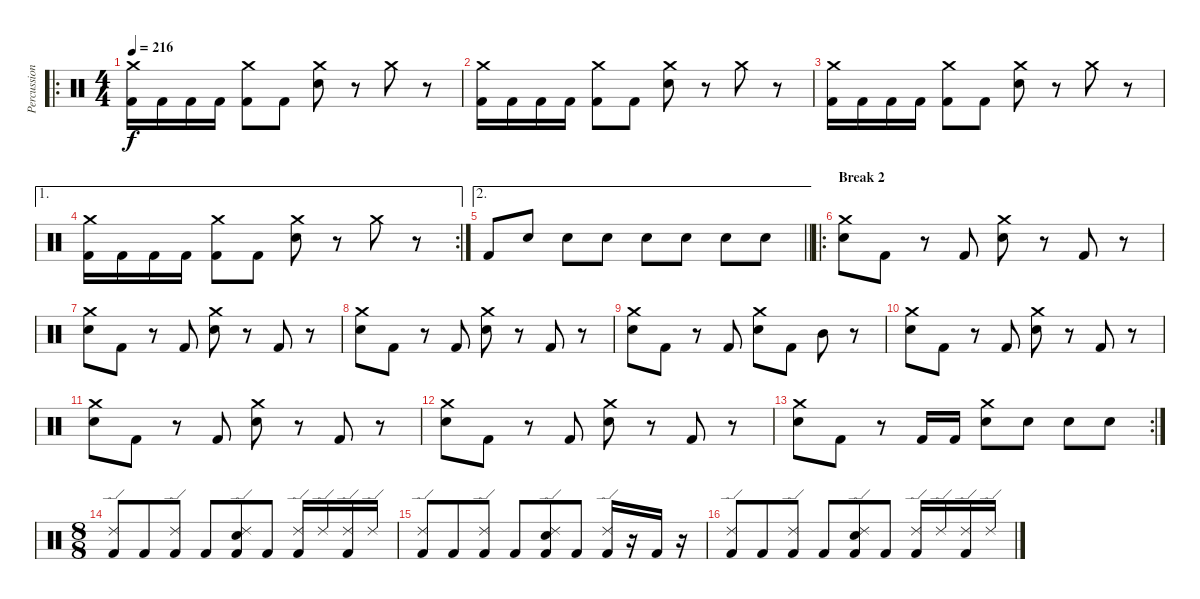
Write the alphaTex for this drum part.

\track ("Percussions" "Percussion") {instrument percussion}
\staff {score}
\articulation defaults
\ro
\ts (4 4)
\tempo 216
\clef neutral
\ks c
("Crash medium (hit)" "Kick (hit) 2").16{dy f} "Kick (hit) 2".16 "Kick (hit) 2".16 "Kick (hit) 2".16 ("Crash medium (hit)" "Kick (hit) 2").8 "Kick (hit) 2".8 ("Crash medium (hit)" "Electric Snare (hit)").8 r.8 "Crash medium (hit)".8 r.8 |
("Crash medium (hit)" "Kick (hit) 2").16 "Kick (hit) 2".16 "Kick (hit) 2".16 "Kick (hit) 2".16 ("Crash medium (hit)" "Kick (hit) 2").8 "Kick (hit) 2".8 ("Crash medium (hit)" "Electric Snare (hit)").8 r.8 "Crash medium (hit)".8 r.8 |
("Crash medium (hit)" "Kick (hit) 2").16 "Kick (hit) 2".16 "Kick (hit) 2".16 "Kick (hit) 2".16 ("Crash medium (hit)" "Kick (hit) 2").8 "Kick (hit) 2".8 ("Crash medium (hit)" "Electric Snare (hit)").8 r.8 "Crash medium (hit)".8 r.8 |
\ae 1
\rc 2
("Crash medium (hit)" "Kick (hit) 2").16 "Kick (hit) 2".16 "Kick (hit) 2".16 "Kick (hit) 2".16 ("Crash medium (hit)" "Kick (hit) 2").8 "Kick (hit) 2".8 ("Crash medium (hit)" "Electric Snare (hit)").8 r.8 "Crash medium (hit)".8 r.8 |
\ae 2
\barLineRight lightlight "Kick (hit) 2".8 "Electric Snare (hit)".8 "Electric Snare (hit)".8 "Electric Snare (hit)".8 "Electric Snare (hit)".8 "Electric Snare (hit)".8 "Electric Snare (hit)".8 "Electric Snare (hit)".8
|
\ro
\section ("" "Break 2")
("Crash medium (hit)" "Electric Snare (hit)").8 "Kick (hit) 2".8 r.8 "Kick (hit) 2".8 ("Crash medium (hit)" "Electric Snare (hit)").8 r.8 "Kick (hit) 2".8 r.8 |
("Crash medium (hit)" "Electric Snare (hit)").8 "Kick (hit) 2".8 r.8 "Kick (hit) 2".8 ("Crash medium (hit)" "Electric Snare (hit)").8 r.8 "Kick (hit) 2".8 r.8 |
("Crash medium (hit)" "Electric Snare (hit)").8 "Kick (hit) 2".8 r.8 "Kick (hit) 2".8 ("Crash medium (hit)" "Electric Snare (hit)").8 r.8 "Kick (hit) 2".8 r.8 |
("Crash medium (hit)" "Electric Snare (hit)").8 "Kick (hit) 2".8 r.8 "Kick (hit) 2".8 ("Crash medium (hit)" "Electric Snare (hit)").8 "Kick (hit) 2".8 "Mid Tom (hit)".8 r.8 |
("Crash medium (hit)" "Electric Snare (hit)").8 "Kick (hit) 2".8 r.8 "Kick (hit) 2".8 ("Crash medium (hit)" "Electric Snare (hit)").8 r.8 "Kick (hit) 2".8 r.8 |
("Crash medium (hit)" "Electric Snare (hit)").8 "Kick (hit) 2".8 r.8 "Kick (hit) 2".8 ("Crash medium (hit)" "Electric Snare (hit)").8 r.8 "Kick (hit) 2".8 r.8 |
("Crash medium (hit)" "Electric Snare (hit)").8 "Kick (hit) 2".8 r.8 "Kick (hit) 2".8 ("Crash medium (hit)" "Electric Snare (hit)").8 r.8 "Kick (hit) 2".8 r.8 |
\rc 2
("Crash medium (hit)" "Electric Snare (hit)").8 "Kick (hit) 2".8 r.8 "Kick (hit) 2".16 "Kick (hit) 2".16 ("Crash medium (hit)" "Electric Snare (hit)").8 "Electric Snare (hit)".8 "Electric Snare (hit)".8 "Electric Snare (hit)".8 |
\ts (8 8)
("Ride (edge) 2" "Kick (hit) 2").8 "Kick (hit) 2".8 ("Ride (edge) 2" "Kick (hit) 2").8 "Kick (hit) 2".8 ("Ride (edge) 2" "Electric Snare (hit)" "Kick (hit) 2").8 "Kick (hit) 2".8 ("Ride (edge) 2" "Kick (hit) 2").16 "Ride (edge) 2".16 ("Ride (edge) 2" "Kick (hit) 2").16 "Ride (edge) 2".16 |
("Ride (edge) 2" "Kick (hit) 2").8 "Kick (hit) 2".8 ("Ride (edge) 2" "Kick (hit) 2").8 "Kick (hit) 2".8 ("Ride (edge) 2" "Electric Snare (hit)" "Kick (hit) 2").8 "Kick (hit) 2".8 ("Ride (edge) 2" "Kick (hit) 2").16 r.16 "Kick (hit) 2".16 r.16 |
("Ride (edge) 2" "Kick (hit) 2").8 "Kick (hit) 2".8 ("Ride (edge) 2" "Kick (hit) 2").8 "Kick (hit) 2".8 ("Ride (edge) 2" "Electric Snare (hit)" "Kick (hit) 2").8 "Kick (hit) 2".8 ("Ride (edge) 2" "Kick (hit) 2").16 "Ride (edge) 2".16 ("Ride (edge) 2" "Kick (hit) 2").16 "Ride (edge) 2".16
